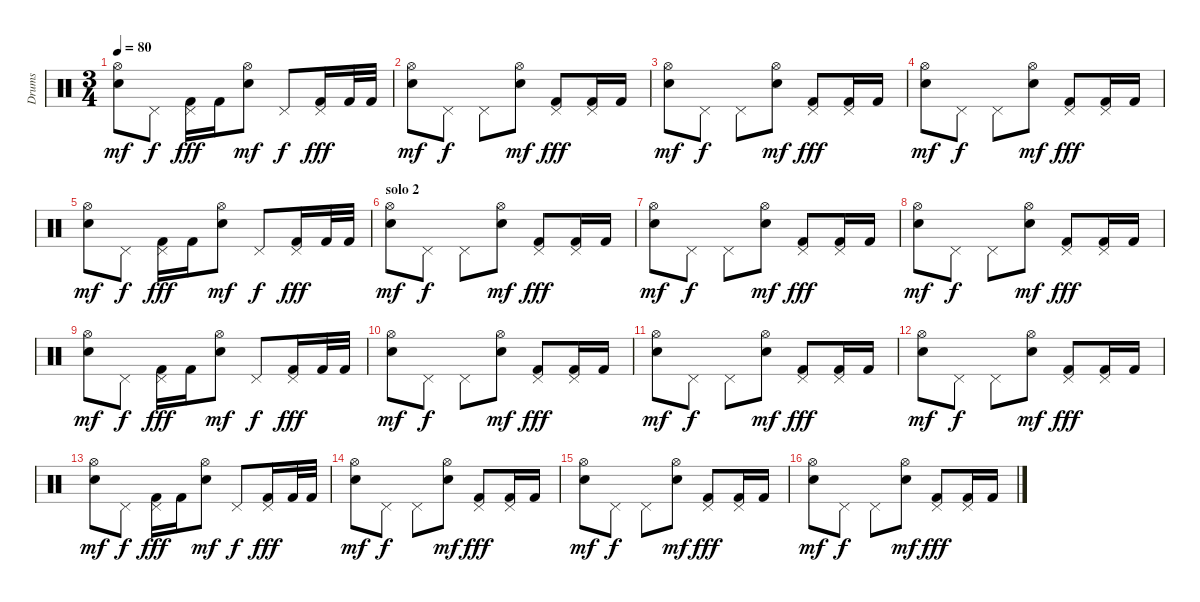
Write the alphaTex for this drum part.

\track ("Drums" "Drums") {instrument percussion}
\staff {score}
\articulation defaults
\ts (3 4)
\tempo 80
\clef neutral
\ks c
("Hi-Hat (open)" "Snare (hit) 2").8{dy mf} "Pedal Hi-Hat (hit)".8{dy f} ("Pedal Hi-Hat (hit)" "Kick (hit) 2").16{dy fff} "Kick (hit) 2".16 ("Hi-Hat (open)" "Snare (hit) 2").8{dy mf} "Pedal Hi-Hat (hit)".8{dy f} ("Pedal Hi-Hat (hit)" "Kick (hit) 2").16{dy fff} "Kick (hit) 2".32 "Kick (hit) 2".32 |
("Hi-Hat (open)" "Snare (hit) 2").8{dy mf} "Pedal Hi-Hat (hit)".8{dy f} "Pedal Hi-Hat (hit)".8 ("Hi-Hat (open)" "Snare (hit) 2").8{dy mf} ("Pedal Hi-Hat (hit)" "Kick (hit) 2").8{dy fff} ("Pedal Hi-Hat (hit)" "Kick (hit) 2").16 "Kick (hit) 2".16 |
("Hi-Hat (open)" "Snare (hit) 2").8{dy mf} "Pedal Hi-Hat (hit)".8{dy f} "Pedal Hi-Hat (hit)".8 ("Hi-Hat (open)" "Snare (hit) 2").8{dy mf} ("Pedal Hi-Hat (hit)" "Kick (hit) 2").8{dy fff} ("Pedal Hi-Hat (hit)" "Kick (hit) 2").16 "Kick (hit) 2".16 |
("Hi-Hat (open)" "Snare (hit) 2").8{dy mf} "Pedal Hi-Hat (hit)".8{dy f} "Pedal Hi-Hat (hit)".8 ("Hi-Hat (open)" "Snare (hit) 2").8{dy mf} ("Pedal Hi-Hat (hit)" "Kick (hit) 2").8{dy fff} ("Pedal Hi-Hat (hit)" "Kick (hit) 2").16 "Kick (hit) 2".16 |
("Hi-Hat (open)" "Snare (hit) 2").8{dy mf} "Pedal Hi-Hat (hit)".8{dy f} ("Pedal Hi-Hat (hit)" "Kick (hit) 2").16{dy fff} "Kick (hit) 2".16 ("Hi-Hat (open)" "Snare (hit) 2").8{dy mf} "Pedal Hi-Hat (hit)".8{dy f} ("Pedal Hi-Hat (hit)" "Kick (hit) 2").16{dy fff} "Kick (hit) 2".32 "Kick (hit) 2".32 |
\section ("" "solo 2")
("Hi-Hat (open)" "Snare (hit) 2").8{dy mf} "Pedal Hi-Hat (hit)".8{dy f} "Pedal Hi-Hat (hit)".8 ("Hi-Hat (open)" "Snare (hit) 2").8{dy mf} ("Pedal Hi-Hat (hit)" "Kick (hit) 2").8{dy fff} ("Pedal Hi-Hat (hit)" "Kick (hit) 2").16 "Kick (hit) 2".16 |
("Hi-Hat (open)" "Snare (hit) 2").8{dy mf} "Pedal Hi-Hat (hit)".8{dy f} "Pedal Hi-Hat (hit)".8 ("Hi-Hat (open)" "Snare (hit) 2").8{dy mf} ("Pedal Hi-Hat (hit)" "Kick (hit) 2").8{dy fff} ("Pedal Hi-Hat (hit)" "Kick (hit) 2").16 "Kick (hit) 2".16 |
("Hi-Hat (open)" "Snare (hit) 2").8{dy mf} "Pedal Hi-Hat (hit)".8{dy f} "Pedal Hi-Hat (hit)".8 ("Hi-Hat (open)" "Snare (hit) 2").8{dy mf} ("Pedal Hi-Hat (hit)" "Kick (hit) 2").8{dy fff} ("Pedal Hi-Hat (hit)" "Kick (hit) 2").16 "Kick (hit) 2".16 |
("Hi-Hat (open)" "Snare (hit) 2").8{dy mf} "Pedal Hi-Hat (hit)".8{dy f} ("Pedal Hi-Hat (hit)" "Kick (hit) 2").16{dy fff} "Kick (hit) 2".16 ("Hi-Hat (open)" "Snare (hit) 2").8{dy mf} "Pedal Hi-Hat (hit)".8{dy f} ("Pedal Hi-Hat (hit)" "Kick (hit) 2").16{dy fff} "Kick (hit) 2".32 "Kick (hit) 2".32 |
("Hi-Hat (open)" "Snare (hit) 2").8{dy mf} "Pedal Hi-Hat (hit)".8{dy f} "Pedal Hi-Hat (hit)".8 ("Hi-Hat (open)" "Snare (hit) 2").8{dy mf} ("Pedal Hi-Hat (hit)" "Kick (hit) 2").8{dy fff} ("Pedal Hi-Hat (hit)" "Kick (hit) 2").16 "Kick (hit) 2".16 |
("Hi-Hat (open)" "Snare (hit) 2").8{dy mf} "Pedal Hi-Hat (hit)".8{dy f} "Pedal Hi-Hat (hit)".8 ("Hi-Hat (open)" "Snare (hit) 2").8{dy mf} ("Pedal Hi-Hat (hit)" "Kick (hit) 2").8{dy fff} ("Pedal Hi-Hat (hit)" "Kick (hit) 2").16 "Kick (hit) 2".16 |
("Hi-Hat (open)" "Snare (hit) 2").8{dy mf} "Pedal Hi-Hat (hit)".8{dy f} "Pedal Hi-Hat (hit)".8 ("Hi-Hat (open)" "Snare (hit) 2").8{dy mf} ("Pedal Hi-Hat (hit)" "Kick (hit) 2").8{dy fff} ("Pedal Hi-Hat (hit)" "Kick (hit) 2").16 "Kick (hit) 2".16 |
("Hi-Hat (open)" "Snare (hit) 2").8{dy mf} "Pedal Hi-Hat (hit)".8{dy f} ("Pedal Hi-Hat (hit)" "Kick (hit) 2").16{dy fff} "Kick (hit) 2".16 ("Hi-Hat (open)" "Snare (hit) 2").8{dy mf} "Pedal Hi-Hat (hit)".8{dy f} ("Pedal Hi-Hat (hit)" "Kick (hit) 2").16{dy fff} "Kick (hit) 2".32 "Kick (hit) 2".32 |
("Hi-Hat (open)" "Snare (hit) 2").8{dy mf} "Pedal Hi-Hat (hit)".8{dy f} "Pedal Hi-Hat (hit)".8 ("Hi-Hat (open)" "Snare (hit) 2").8{dy mf} ("Pedal Hi-Hat (hit)" "Kick (hit) 2").8{dy fff} ("Pedal Hi-Hat (hit)" "Kick (hit) 2").16 "Kick (hit) 2".16 |
("Hi-Hat (open)" "Snare (hit) 2").8{dy mf} "Pedal Hi-Hat (hit)".8{dy f} "Pedal Hi-Hat (hit)".8 ("Hi-Hat (open)" "Snare (hit) 2").8{dy mf} ("Pedal Hi-Hat (hit)" "Kick (hit) 2").8{dy fff} ("Pedal Hi-Hat (hit)" "Kick (hit) 2").16 "Kick (hit) 2".16 |
("Hi-Hat (open)" "Snare (hit) 2").8{dy mf} "Pedal Hi-Hat (hit)".8{dy f} "Pedal Hi-Hat (hit)".8 ("Hi-Hat (open)" "Snare (hit) 2").8{dy mf} ("Pedal Hi-Hat (hit)" "Kick (hit) 2").8{dy fff} ("Pedal Hi-Hat (hit)" "Kick (hit) 2").16 "Kick (hit) 2".16
